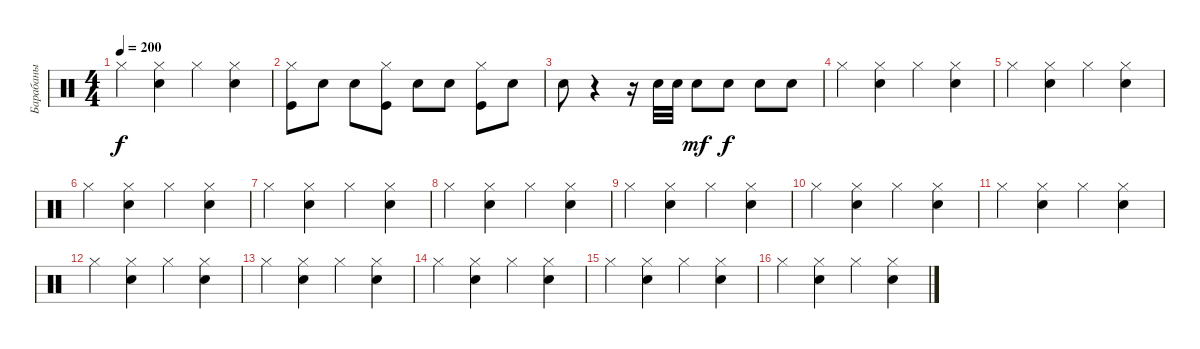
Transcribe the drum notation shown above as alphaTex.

\track ("Барабаны" "Барабаны") {instrument percussion}
\staff {score}
\articulation defaults
\ts (4 4)
\tempo 200
\clef neutral
\ks c "Hi-Hat (closed)".4{dy f}
("Snare (hit) 2" "Hi-Hat (closed)").4 "Hi-Hat (closed)".4 ("Snare (hit) 2" "Hi-Hat (closed)").4 |
("Hi-Hat (closed)" "Kick (hit)").8 "Electric Snare (hit)".8 "Electric Snare (hit)".8 ("Hi-Hat (closed)" "Kick (hit)").8 "Electric Snare (hit)".8 "Electric Snare (hit)".8 ("Hi-Hat (closed)" "Kick (hit)").8 "Electric Snare (hit)".8 |
"Electric Snare (hit)".8 r.4 r.16 "Electric Snare (hit)".32 "Electric Snare (hit)".32 "Electric Snare (hit)".8{dy mf} "Electric Snare (hit)".8{dy f} "Electric Snare (hit)".8 "Electric Snare (hit)".8 |
"Hi-Hat (closed)".4 ("Snare (hit) 2" "Hi-Hat (closed)").4 "Hi-Hat (closed)".4 ("Snare (hit) 2" "Hi-Hat (closed)").4 |
"Hi-Hat (closed)".4 ("Snare (hit) 2" "Hi-Hat (closed)").4 "Hi-Hat (closed)".4 ("Snare (hit) 2" "Hi-Hat (closed)").4 |
"Hi-Hat (closed)".4 ("Snare (hit) 2" "Hi-Hat (closed)").4 "Hi-Hat (closed)".4 ("Snare (hit) 2" "Hi-Hat (closed)").4 |
"Hi-Hat (closed)".4 ("Snare (hit) 2" "Hi-Hat (closed)").4 "Hi-Hat (closed)".4 ("Snare (hit) 2" "Hi-Hat (closed)").4 |
"Hi-Hat (closed)".4 ("Snare (hit) 2" "Hi-Hat (closed)").4 "Hi-Hat (closed)".4 ("Snare (hit) 2" "Hi-Hat (closed)").4 |
"Hi-Hat (closed)".4 ("Snare (hit) 2" "Hi-Hat (closed)").4 "Hi-Hat (closed)".4 ("Snare (hit) 2" "Hi-Hat (closed)").4 |
"Hi-Hat (closed)".4 ("Snare (hit) 2" "Hi-Hat (closed)").4 "Hi-Hat (closed)".4 ("Snare (hit) 2" "Hi-Hat (closed)").4 |
"Hi-Hat (closed)".4 ("Snare (hit) 2" "Hi-Hat (closed)").4 "Hi-Hat (closed)".4 ("Snare (hit) 2" "Hi-Hat (closed)").4 |
"Hi-Hat (closed)".4 ("Snare (hit) 2" "Hi-Hat (closed)").4 "Hi-Hat (closed)".4 ("Snare (hit) 2" "Hi-Hat (closed)").4 |
"Hi-Hat (closed)".4 ("Snare (hit) 2" "Hi-Hat (closed)").4 "Hi-Hat (closed)".4 ("Snare (hit) 2" "Hi-Hat (closed)").4 |
"Hi-Hat (closed)".4 ("Snare (hit) 2" "Hi-Hat (closed)").4 "Hi-Hat (closed)".4 ("Snare (hit) 2" "Hi-Hat (closed)").4 |
"Hi-Hat (closed)".4 ("Snare (hit) 2" "Hi-Hat (closed)").4 "Hi-Hat (closed)".4 ("Snare (hit) 2" "Hi-Hat (closed)").4 |
"Hi-Hat (closed)".4 ("Snare (hit) 2" "Hi-Hat (closed)").4 "Hi-Hat (closed)".4 ("Snare (hit) 2" "Hi-Hat (closed)").4
